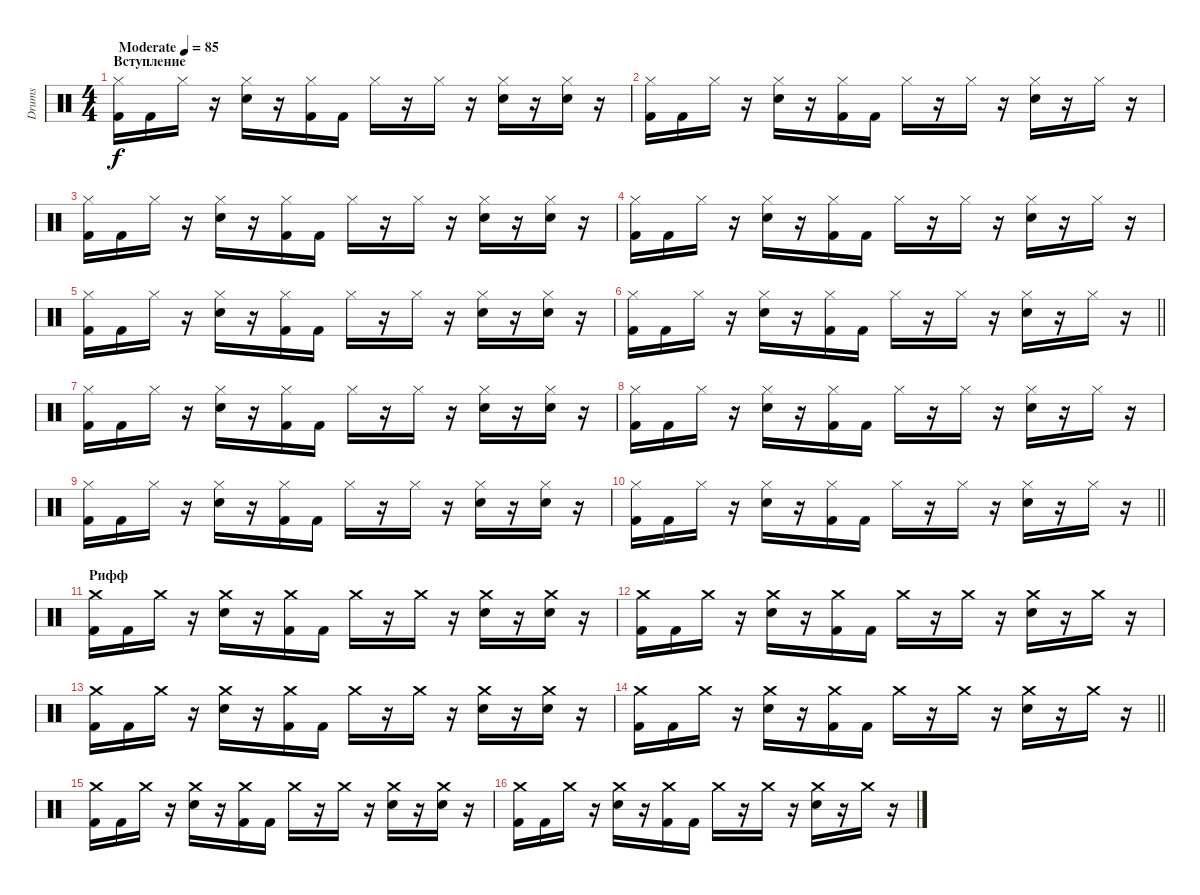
\track ("Drums" "Drums") {instrument percussion}
\staff {score}
\articulation defaults
\ts (4 4)
\section ("" "Вступление")
\tempo (85 "Moderate")
\clef neutral
\ks c
("Hi-Hat (closed)" "Kick (hit) 2").16{dy f} "Kick (hit) 2".16 "Hi-Hat (closed)".16 r.16 ("Hi-Hat (closed)" "Electric Snare (hit)").16 r.16 ("Hi-Hat (closed)" "Kick (hit) 2").16 "Kick (hit) 2".16 "Hi-Hat (closed)".16 r.16 "Hi-Hat (closed)".16 r.16 ("Hi-Hat (closed)" "Electric Snare (hit)").16 r.16 ("Hi-Hat (closed)" "Electric Snare (hit)").16 r.16 |
("Hi-Hat (closed)" "Kick (hit) 2").16 "Kick (hit) 2".16 "Hi-Hat (closed)".16 r.16 ("Hi-Hat (closed)" "Electric Snare (hit)").16 r.16 ("Hi-Hat (closed)" "Kick (hit) 2").16 "Kick (hit) 2".16 "Hi-Hat (closed)".16 r.16 "Hi-Hat (closed)".16 r.16 ("Hi-Hat (closed)" "Electric Snare (hit)").16 r.16 "Hi-Hat (closed)".16 r.16 |
("Hi-Hat (closed)" "Kick (hit) 2").16 "Kick (hit) 2".16 "Hi-Hat (closed)".16 r.16 ("Hi-Hat (closed)" "Electric Snare (hit)").16 r.16 ("Hi-Hat (closed)" "Kick (hit) 2").16 "Kick (hit) 2".16 "Hi-Hat (closed)".16 r.16 "Hi-Hat (closed)".16 r.16 ("Hi-Hat (closed)" "Electric Snare (hit)").16 r.16 ("Hi-Hat (closed)" "Electric Snare (hit)").16 r.16 |
("Hi-Hat (closed)" "Kick (hit) 2").16 "Kick (hit) 2".16 "Hi-Hat (closed)".16 r.16 ("Hi-Hat (closed)" "Electric Snare (hit)").16 r.16 ("Hi-Hat (closed)" "Kick (hit) 2").16 "Kick (hit) 2".16 "Hi-Hat (closed)".16 r.16 "Hi-Hat (closed)".16 r.16 ("Hi-Hat (closed)" "Electric Snare (hit)").16 r.16 "Hi-Hat (closed)".16 r.16 |
("Hi-Hat (closed)" "Kick (hit) 2").16 "Kick (hit) 2".16 "Hi-Hat (closed)".16 r.16 ("Hi-Hat (closed)" "Electric Snare (hit)").16 r.16 ("Hi-Hat (closed)" "Kick (hit) 2").16 "Kick (hit) 2".16 "Hi-Hat (closed)".16 r.16 "Hi-Hat (closed)".16 r.16 ("Hi-Hat (closed)" "Electric Snare (hit)").16 r.16 ("Hi-Hat (closed)" "Electric Snare (hit)").16 r.16 |
\barLineRight lightlight
("Hi-Hat (closed)" "Kick (hit) 2").16 "Kick (hit) 2".16 "Hi-Hat (closed)".16 r.16 ("Hi-Hat (closed)" "Electric Snare (hit)").16 r.16 ("Hi-Hat (closed)" "Kick (hit) 2").16 "Kick (hit) 2".16 "Hi-Hat (closed)".16 r.16 "Hi-Hat (closed)".16 r.16 ("Hi-Hat (closed)" "Electric Snare (hit)").16 r.16 "Hi-Hat (closed)".16 r.16 |
("Hi-Hat (closed)" "Kick (hit) 2").16 "Kick (hit) 2".16 "Hi-Hat (closed)".16 r.16 ("Hi-Hat (closed)" "Electric Snare (hit)").16 r.16 ("Hi-Hat (closed)" "Kick (hit) 2").16 "Kick (hit) 2".16 "Hi-Hat (closed)".16 r.16 "Hi-Hat (closed)".16 r.16 ("Hi-Hat (closed)" "Electric Snare (hit)").16 r.16 ("Hi-Hat (closed)" "Electric Snare (hit)").16 r.16 |
("Hi-Hat (closed)" "Kick (hit) 2").16 "Kick (hit) 2".16 "Hi-Hat (closed)".16 r.16 ("Hi-Hat (closed)" "Electric Snare (hit)").16 r.16 ("Hi-Hat (closed)" "Kick (hit) 2").16 "Kick (hit) 2".16 "Hi-Hat (closed)".16 r.16 "Hi-Hat (closed)".16 r.16 ("Hi-Hat (closed)" "Electric Snare (hit)").16 r.16 "Hi-Hat (closed)".16 r.16 |
("Hi-Hat (closed)" "Kick (hit) 2").16 "Kick (hit) 2".16 "Hi-Hat (closed)".16 r.16 ("Hi-Hat (closed)" "Electric Snare (hit)").16 r.16 ("Hi-Hat (closed)" "Kick (hit) 2").16 "Kick (hit) 2".16 "Hi-Hat (closed)".16 r.16 "Hi-Hat (closed)".16 r.16 ("Hi-Hat (closed)" "Electric Snare (hit)").16 r.16 ("Hi-Hat (closed)" "Electric Snare (hit)").16 r.16 |
\barLineRight lightlight
("Hi-Hat (closed)" "Kick (hit) 2").16 "Kick (hit) 2".16 "Hi-Hat (closed)".16 r.16 ("Hi-Hat (closed)" "Electric Snare (hit)").16 r.16 ("Hi-Hat (closed)" "Kick (hit) 2").16 "Kick (hit) 2".16 "Hi-Hat (closed)".16 r.16 "Hi-Hat (closed)".16 r.16 ("Hi-Hat (closed)" "Electric Snare (hit)").16 r.16 "Hi-Hat (closed)".16 r.16 |
\section ("" "Рифф")
("Crash medium (hit)" "Kick (hit) 2").16 "Kick (hit) 2".16 "Crash medium (hit)".16 r.16 ("Crash medium (hit)" "Electric Snare (hit)").16 r.16 ("Crash medium (hit)" "Kick (hit) 2").16 "Kick (hit) 2".16 "Crash medium (hit)".16 r.16 "Crash medium (hit)".16 r.16 ("Crash medium (hit)" "Electric Snare (hit)").16 r.16 ("Crash medium (hit)" "Electric Snare (hit)").16 r.16 |
("Crash medium (hit)" "Kick (hit) 2").16 "Kick (hit) 2".16 "Crash medium (hit)".16 r.16 ("Crash medium (hit)" "Electric Snare (hit)").16 r.16 ("Crash medium (hit)" "Kick (hit) 2").16 "Kick (hit) 2".16 "Crash medium (hit)".16 r.16 "Crash medium (hit)".16 r.16 ("Crash medium (hit)" "Electric Snare (hit)").16 r.16 "Crash medium (hit)".16 r.16 |
("Crash medium (hit)" "Kick (hit) 2").16 "Kick (hit) 2".16 "Crash medium (hit)".16 r.16 ("Crash medium (hit)" "Electric Snare (hit)").16 r.16 ("Crash medium (hit)" "Kick (hit) 2").16 "Kick (hit) 2".16 "Crash medium (hit)".16 r.16 "Crash medium (hit)".16 r.16 ("Crash medium (hit)" "Electric Snare (hit)").16 r.16 ("Crash medium (hit)" "Electric Snare (hit)").16 r.16 |
\barLineRight lightlight
("Crash medium (hit)" "Kick (hit) 2").16 "Kick (hit) 2".16 "Crash medium (hit)".16 r.16 ("Crash medium (hit)" "Electric Snare (hit)").16 r.16 ("Crash medium (hit)" "Kick (hit) 2").16 "Kick (hit) 2".16 "Crash medium (hit)".16 r.16 "Crash medium (hit)".16 r.16 ("Crash medium (hit)" "Electric Snare (hit)").16 r.16 "Crash medium (hit)".16 r.16 |
("Crash medium (hit)" "Kick (hit) 2").16 "Kick (hit) 2".16 "Crash medium (hit)".16 r.16 ("Crash medium (hit)" "Electric Snare (hit)").16 r.16 ("Crash medium (hit)" "Kick (hit) 2").16 "Kick (hit) 2".16 "Crash medium (hit)".16 r.16 "Crash medium (hit)".16 r.16 ("Crash medium (hit)" "Electric Snare (hit)").16 r.16 ("Crash medium (hit)" "Electric Snare (hit)").16 r.16 |
("Crash medium (hit)" "Kick (hit) 2").16 "Kick (hit) 2".16 "Crash medium (hit)".16 r.16 ("Crash medium (hit)" "Electric Snare (hit)").16 r.16 ("Crash medium (hit)" "Kick (hit) 2").16 "Kick (hit) 2".16 "Crash medium (hit)".16 r.16 "Crash medium (hit)".16 r.16 ("Crash medium (hit)" "Electric Snare (hit)").16 r.16 "Crash medium (hit)".16 r.16
